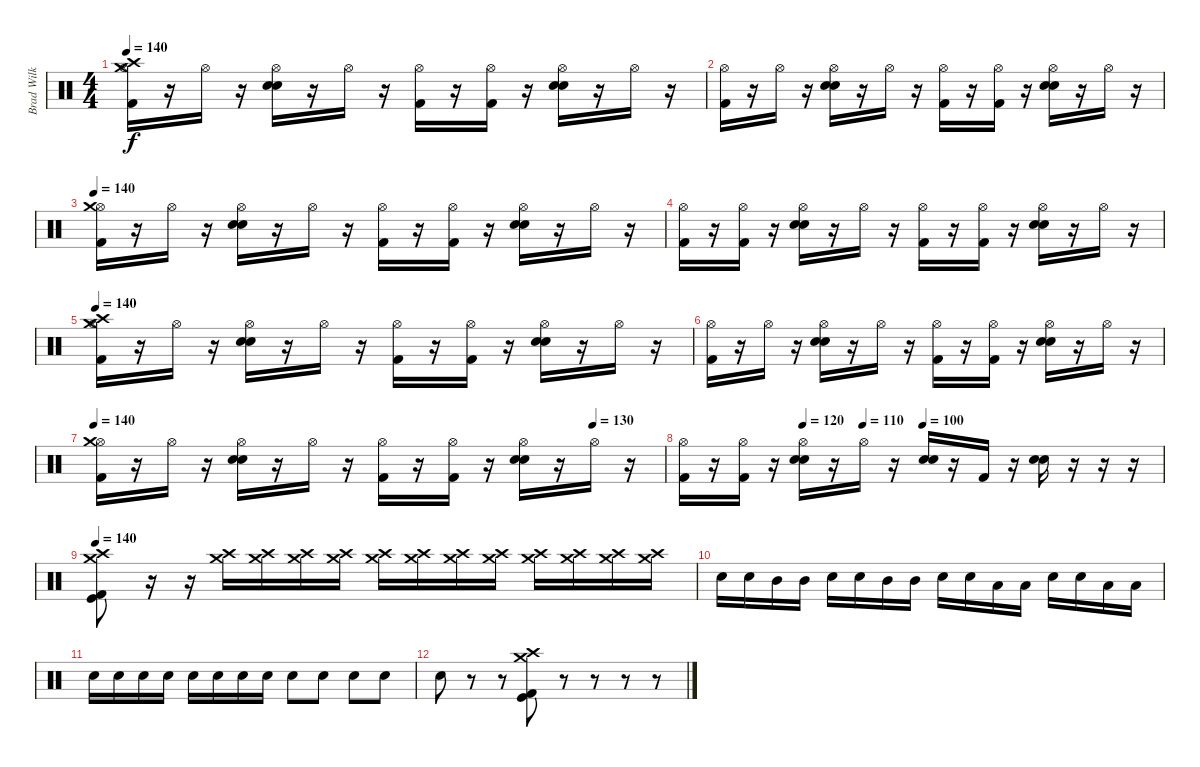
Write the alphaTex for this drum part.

\track ("Brad Wilk" "Brad Wilk") {instrument percussion}
\staff {score}
\articulation defaults
\ts (4 4)
\tempo 140
\clef neutral
\ks c
("Hi-Hat (open)" "Crash medium (hit)" "Crash high (hit)" "Kick (hit) 2").16{dy f} r.16 "Hi-Hat (open)".16 r.16 ("Hi-Hat (open)" "Electric Snare (hit)" "Snare (hit) 2").16 r.16 "Hi-Hat (open)".16 r.16 ("Hi-Hat (open)" "Kick (hit) 2").16 r.16 ("Hi-Hat (open)" "Kick (hit) 2").16 r.16 ("Hi-Hat (open)" "Electric Snare (hit)" "Snare (hit) 2").16 r.16 "Hi-Hat (open)".16 r.16 |
("Hi-Hat (open)" "Kick (hit) 2").16 r.16 "Hi-Hat (open)".16 r.16 ("Hi-Hat (open)" "Electric Snare (hit)" "Snare (hit) 2").16 r.16 "Hi-Hat (open)".16 r.16 ("Hi-Hat (open)" "Kick (hit) 2").16 r.16 ("Hi-Hat (open)" "Kick (hit) 2").16 r.16 ("Hi-Hat (open)" "Electric Snare (hit)" "Snare (hit) 2").16 r.16 "Hi-Hat (open)".16 r.16 |
\tempo 140
("Hi-Hat (open)" "Crash medium (hit)" "Kick (hit) 2").16 r.16 "Hi-Hat (open)".16 r.16 ("Hi-Hat (open)" "Electric Snare (hit)" "Snare (hit) 2").16 r.16 "Hi-Hat (open)".16 r.16 ("Hi-Hat (open)" "Kick (hit) 2").16 r.16 ("Hi-Hat (open)" "Kick (hit) 2").16 r.16 ("Hi-Hat (open)" "Electric Snare (hit)" "Snare (hit) 2").16 r.16 "Hi-Hat (open)".16 r.16 |
("Hi-Hat (open)" "Kick (hit) 2").16 r.16 ("Hi-Hat (open)" "Kick (hit) 2").16 r.16 ("Hi-Hat (open)" "Electric Snare (hit)" "Snare (hit) 2").16 r.16 "Hi-Hat (open)".16 r.16 ("Hi-Hat (open)" "Kick (hit) 2").16 r.16 ("Hi-Hat (open)" "Kick (hit) 2").16 r.16 ("Hi-Hat (open)" "Electric Snare (hit)" "Snare (hit) 2").16 r.16 "Hi-Hat (open)".16 r.16 |
\tempo 140
("Hi-Hat (open)" "Crash medium (hit)" "Crash high (hit)" "Kick (hit) 2").16 r.16 "Hi-Hat (open)".16 r.16 ("Hi-Hat (open)" "Electric Snare (hit)" "Snare (hit) 2").16 r.16 "Hi-Hat (open)".16 r.16 ("Hi-Hat (open)" "Kick (hit) 2").16 r.16 ("Hi-Hat (open)" "Kick (hit) 2").16 r.16 ("Hi-Hat (open)" "Electric Snare (hit)" "Snare (hit) 2").16 r.16 "Hi-Hat (open)".16 r.16 |
("Hi-Hat (open)" "Kick (hit) 2").16 r.16 "Hi-Hat (open)".16 r.16 ("Hi-Hat (open)" "Electric Snare (hit)" "Snare (hit) 2").16 r.16 "Hi-Hat (open)".16 r.16 ("Hi-Hat (open)" "Kick (hit) 2").16 r.16 ("Hi-Hat (open)" "Kick (hit) 2").16 r.16 ("Hi-Hat (open)" "Electric Snare (hit)" "Snare (hit) 2").16 r.16 "Hi-Hat (open)".16 r.16 |
\tempo 140
\tempo (130 0.875)
("Hi-Hat (open)" "Crash medium (hit)" "Kick (hit) 2").16 r.16 "Hi-Hat (open)".16 r.16 ("Hi-Hat (open)" "Electric Snare (hit)" "Snare (hit) 2").16 r.16 "Hi-Hat (open)".16 r.16 ("Hi-Hat (open)" "Kick (hit) 2").16 r.16 ("Hi-Hat (open)" "Kick (hit) 2").16 r.16 ("Hi-Hat (open)" "Electric Snare (hit)" "Snare (hit) 2").16 r.16 "Hi-Hat (open)".16 r.16 |
\tempo (120 0.25)
\tempo (110 0.375)
\tempo (100 0.5)
("Hi-Hat (open)" "Kick (hit) 2").16 r.16 ("Hi-Hat (open)" "Kick (hit) 2").16 r.16 ("Hi-Hat (open)" "Electric Snare (hit)" "Snare (hit) 2").16 r.16 "Hi-Hat (open)".16 r.16 ("Electric Snare (hit)" "Snare (hit) 2").16 r.16 "Kick (hit) 2".16 r.16 ("Electric Snare (hit)" "Snare (hit) 2").16 r.16 r.16 r.16 |
\tempo 140
("Crash medium (hit)" "Crash high (hit)" "Kick (hit)" "Kick (hit) 2").8 r.16 r.16 ("Crash medium (hit)" "Crash high (hit)").16 ("Crash medium (hit)" "Crash high (hit)").16 ("Crash medium (hit)" "Crash high (hit)").16 ("Crash medium (hit)" "Crash high (hit)").16 ("Crash medium (hit)" "Crash high (hit)").16 ("Crash medium (hit)" "Crash high (hit)").16 ("Crash medium (hit)" "Crash high (hit)").16 ("Crash medium (hit)" "Crash high (hit)").16 ("Crash medium (hit)" "Crash high (hit)").16 ("Crash medium (hit)" "Crash high (hit)").16 ("Crash medium (hit)" "Crash high (hit)").16 ("Crash medium (hit)" "Crash high (hit)").16 |
"Snare (hit) 2".16 "Snare (hit) 2".16 "Mid Tom (hit)".16 "Mid Tom (hit)".16 "Snare (hit) 2".16 "Snare (hit) 2".16 "Mid Tom (hit)".16 "Mid Tom (hit)".16 "Snare (hit) 2".16 "Snare (hit) 2".16 "Low Tom (hit)".16 "Low Tom (hit)".16 "Snare (hit) 2".16 "Snare (hit) 2".16 "Low Tom (hit)".16 "Low Tom (hit)".16 |
"Electric Snare (hit)".16 "Electric Snare (hit)".16 "Electric Snare (hit)".16 "Electric Snare (hit)".16 "Electric Snare (hit)".16 "Electric Snare (hit)".16 "Electric Snare (hit)".16 "Electric Snare (hit)".16 "Electric Snare (hit)".8 "Electric Snare (hit)".8 "Electric Snare (hit)".8 "Electric Snare (hit)".8 |
"Electric Snare (hit)".8 r.8 r.8 ("Crash high (hit)" "Crash medium (hit)" "Kick (hit)" "Kick (hit) 2").8 r.8 r.8 r.8 r.8
